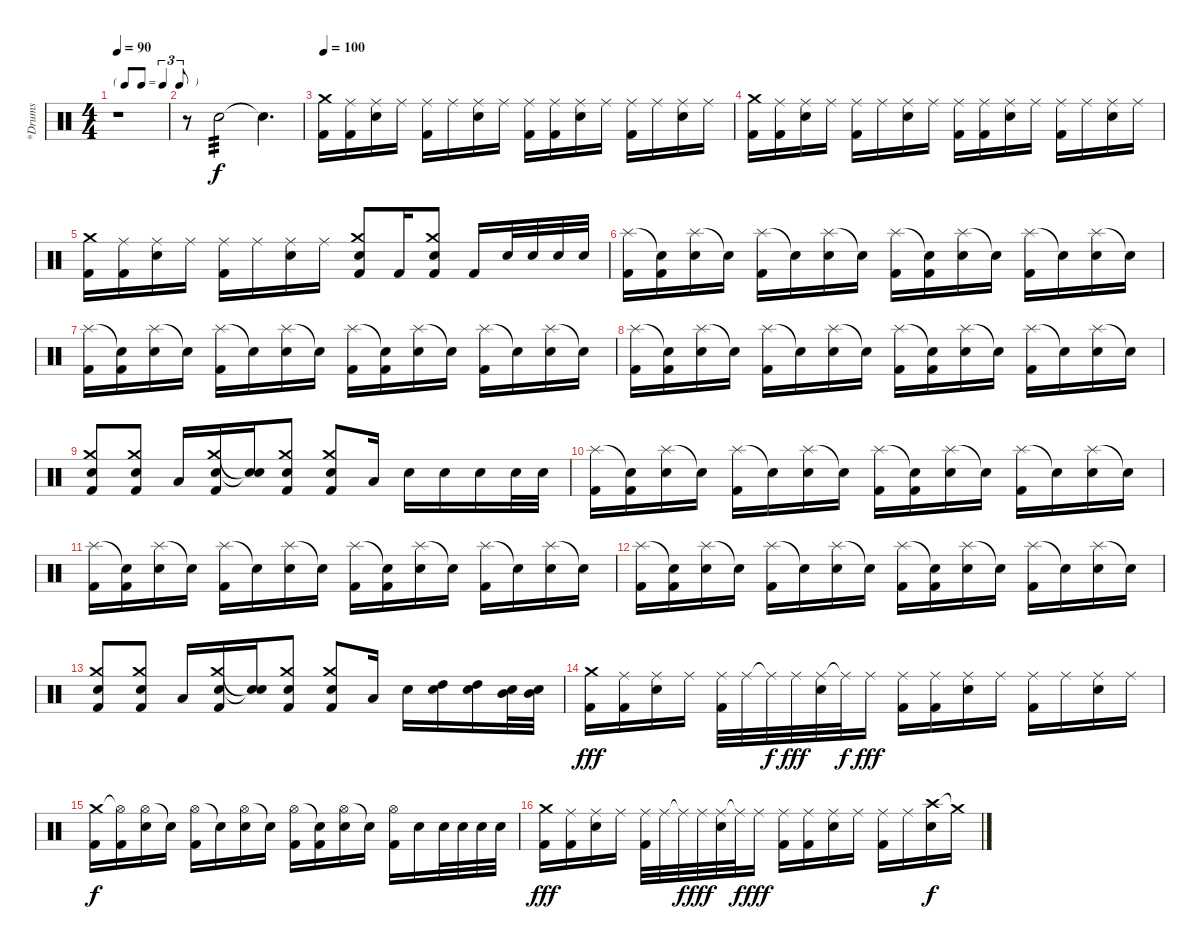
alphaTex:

\track ("*Drums" "*Drums") {instrument percussion}
\staff {score}
\articulation defaults
\ts (4 4)
\tf triplet8th
\tempo 90
\clef neutral
\ks c
r.1{dy f} |
r.8 "Electric Snare (hit)".2{tp 3} "Snare (hit)"{t}.4{d} |
\tempo 100
("Crash medium (hit)" "Kick (hit) 2").16 ("Ride (middle)" "Kick (hit) 2").16 ("Ride (middle)" "Electric Snare (hit)").16 "Ride (middle)".16 ("Ride (middle)" "Kick (hit) 2").16 "Ride (middle)".16 ("Ride (middle)" "Electric Snare (hit)").16 "Ride (middle)".16 ("Ride (middle)" "Kick (hit) 2").16 ("Ride (middle)" "Kick (hit) 2").16 ("Ride (middle)" "Electric Snare (hit)").16 "Ride (middle)".16 ("Ride (middle)" "Kick (hit) 2").16 "Ride (middle)".16 ("Ride (middle)" "Electric Snare (hit)").16 "Ride (middle)".16 |
("Crash medium (hit)" "Kick (hit) 2").16 ("Ride (middle)" "Kick (hit) 2").16 ("Ride (middle)" "Electric Snare (hit)").16 "Ride (middle)".16 ("Ride (middle)" "Kick (hit) 2").16 "Ride (middle)".16 ("Ride (middle)" "Electric Snare (hit)").16 "Ride (middle)".16 ("Ride (middle)" "Kick (hit) 2").16 ("Ride (middle)" "Kick (hit) 2").16 ("Ride (middle)" "Electric Snare (hit)").16 "Ride (middle)".16 ("Ride (middle)" "Kick (hit) 2").16 "Ride (middle)".16 ("Ride (middle)" "Electric Snare (hit)").16 "Ride (middle)".16 |
("Crash medium (hit)" "Kick (hit) 2").16 ("Ride (middle)" "Kick (hit) 2").16 ("Ride (middle)" "Electric Snare (hit)").16 "Ride (middle)".16 ("Ride (middle)" "Kick (hit) 2").16 "Ride (middle)".16 ("Ride (middle)" "Electric Snare (hit)").16 "Ride (middle)".16 ("Crash medium (hit)" "Electric Snare (hit)" "Kick (hit) 2").8 "Kick (hit) 2".16 ("Crash medium (hit)" "Electric Snare (hit)" "Kick (hit) 2").8 "Kick (hit) 2".16 "Electric Snare (hit)".32 "Electric Snare (hit)".32 "Electric Snare (hit)".32 "Electric Snare (hit)".32 |
("Splash (hit)" "Kick (hit) 2").16 ("Snare (hit)"{t} "Kick (hit) 2").16 ("Splash (hit)" "Electric Snare (hit)").16 "Snare (hit)"{t}.16 ("Splash (hit)" "Kick (hit) 2").16 "Snare (hit)"{t}.16 ("Splash (hit)" "Electric Snare (hit)").16 "Snare (hit)"{t}.16 ("Splash (hit)" "Kick (hit) 2").16 ("Snare (hit)"{t} "Kick (hit) 2").16 ("Splash (hit)" "Electric Snare (hit)").16 "Snare (hit)"{t}.16 ("Splash (hit)" "Kick (hit) 2").16 "Snare (hit)"{t}.16 ("Splash (hit)" "Electric Snare (hit)").16 "Snare (hit)"{t}.16 |
("Splash (hit)" "Kick (hit) 2").16 ("Snare (hit)"{t} "Kick (hit) 2").16 ("Splash (hit)" "Electric Snare (hit)").16 "Snare (hit)"{t}.16 ("Splash (hit)" "Kick (hit) 2").16 "Snare (hit)"{t}.16 ("Splash (hit)" "Electric Snare (hit)").16 "Snare (hit)"{t}.16 ("Splash (hit)" "Kick (hit) 2").16 ("Snare (hit)"{t} "Kick (hit) 2").16 ("Splash (hit)" "Electric Snare (hit)").16 "Snare (hit)"{t}.16 ("Splash (hit)" "Kick (hit) 2").16 "Snare (hit)"{t}.16 ("Splash (hit)" "Electric Snare (hit)").16 "Snare (hit)"{t}.16 |
("Splash (hit)" "Kick (hit) 2").16 ("Snare (hit)"{t} "Kick (hit) 2").16 ("Splash (hit)" "Electric Snare (hit)").16 "Snare (hit)"{t}.16 ("Splash (hit)" "Kick (hit) 2").16 "Snare (hit)"{t}.16 ("Splash (hit)" "Electric Snare (hit)").16 "Snare (hit)"{t}.16 ("Splash (hit)" "Kick (hit) 2").16 ("Snare (hit)"{t} "Kick (hit) 2").16 ("Splash (hit)" "Electric Snare (hit)").16 "Snare (hit)"{t}.16 ("Splash (hit)" "Kick (hit) 2").16 "Snare (hit)"{t}.16 ("Splash (hit)" "Electric Snare (hit)").16 "Snare (hit)"{t}.16 |
("Crash medium (hit)" "Electric Snare (hit)" "Kick (hit) 2").8 ("Crash medium (hit)" "Electric Snare (hit)" "Kick (hit) 2").8 "Low Tom (hit)".16 ("Crash medium (hit)" "Electric Snare (hit)" "Kick (hit) 2").16 ("Snare (hit)"{t} "Electric Snare (hit)"{t}).16 ("Crash medium (hit)" "Electric Snare (hit)" "Kick (hit) 2").8 ("Crash medium (hit)" "Electric Snare (hit)" "Kick (hit) 2").8 "Low Tom (hit)".16 "Electric Snare (hit)".16 "Electric Snare (hit)".16 "Electric Snare (hit)".16 "Electric Snare (hit)".32 "Electric Snare (hit)".32 |
("Splash (hit)" "Kick (hit) 2").16 ("Snare (hit)"{t} "Kick (hit) 2").16 ("Splash (hit)" "Electric Snare (hit)").16 "Snare (hit)"{t}.16 ("Splash (hit)" "Kick (hit) 2").16 "Snare (hit)"{t}.16 ("Splash (hit)" "Electric Snare (hit)").16 "Snare (hit)"{t}.16 ("Splash (hit)" "Kick (hit) 2").16 ("Snare (hit)"{t} "Kick (hit) 2").16 ("Splash (hit)" "Electric Snare (hit)").16 "Snare (hit)"{t}.16 ("Splash (hit)" "Kick (hit) 2").16 "Snare (hit)"{t}.16 ("Splash (hit)" "Electric Snare (hit)").16 "Snare (hit)"{t}.16 |
("Splash (hit)" "Kick (hit) 2").16 ("Snare (hit)"{t} "Kick (hit) 2").16 ("Splash (hit)" "Electric Snare (hit)").16 "Snare (hit)"{t}.16 ("Splash (hit)" "Kick (hit) 2").16 "Snare (hit)"{t}.16 ("Splash (hit)" "Electric Snare (hit)").16 "Snare (hit)"{t}.16 ("Splash (hit)" "Kick (hit) 2").16 ("Snare (hit)"{t} "Kick (hit) 2").16 ("Splash (hit)" "Electric Snare (hit)").16 "Snare (hit)"{t}.16 ("Splash (hit)" "Kick (hit) 2").16 "Snare (hit)"{t}.16 ("Splash (hit)" "Electric Snare (hit)").16 "Snare (hit)"{t}.16 |
("Splash (hit)" "Kick (hit) 2").16 ("Snare (hit)"{t} "Kick (hit) 2").16 ("Splash (hit)" "Electric Snare (hit)").16 "Snare (hit)"{t}.16 ("Splash (hit)" "Kick (hit) 2").16 "Snare (hit)"{t}.16 ("Splash (hit)" "Electric Snare (hit)").16 "Snare (hit)"{t}.16 ("Splash (hit)" "Kick (hit) 2").16 ("Snare (hit)"{t} "Kick (hit) 2").16 ("Splash (hit)" "Electric Snare (hit)").16 "Snare (hit)"{t}.16 ("Splash (hit)" "Kick (hit) 2").16 "Snare (hit)"{t}.16 ("Splash (hit)" "Electric Snare (hit)").16 "Snare (hit)"{t}.16 |
("Crash medium (hit)" "Electric Snare (hit)" "Kick (hit) 2").8 ("Crash medium (hit)" "Electric Snare (hit)" "Kick (hit) 2").8 "Low Tom (hit)".16 ("Crash medium (hit)" "Electric Snare (hit)" "Kick (hit) 2").16 ("Snare (hit)"{t} "Electric Snare (hit)"{t}).16 ("Crash medium (hit)" "Electric Snare (hit)" "Kick (hit) 2").8 ("Crash medium (hit)" "Electric Snare (hit)" "Kick (hit) 2").8 "Low Tom (hit)".16 "Electric Snare (hit)".16 ("High Tom (hit)" "Electric Snare (hit)").16 ("High Tom (hit)" "Electric Snare (hit)").16 ("Mid Tom (hit)" "Electric Snare (hit)").32 ("Mid Tom (hit)" "Electric Snare (hit)").32 |
("Crash medium (hit)" "Kick (hit) 2").16{dy fff} ("Ride (middle)" "Kick (hit) 2").16 ("Ride (middle)" "Electric Snare (hit)").16 "Ride (middle)".16 ("Ride (middle)" "Kick (hit) 2").32 "Ride (middle)".32 "Ride (middle)"{t}.32{dy f} "Ride (middle)".32{dy fff} ("Ride (middle)" "Electric Snare (hit)").32 "Ride (middle)"{t}.32{dy f} "Ride (middle)".16{dy fff} ("Ride (middle)" "Kick (hit) 2").16 ("Ride (middle)" "Kick (hit) 2").16 ("Ride (middle)" "Electric Snare (hit)").16 "Ride (middle)".16 ("Ride (middle)" "Kick (hit) 2").16 "Ride (middle)".16 ("Ride (middle)" "Electric Snare (hit)").16 "Ride (middle)".16 |
("Crash medium (hit)" "Kick (hit) 2").16{dy f} ("Hi-Hat (open)"{t} "Kick (hit) 2").16 ("Hi-Hat (open)" "Electric Snare (hit)").16 "Snare (hit)"{t}.16 ("Hi-Hat (open)" "Kick (hit) 2").16 "Snare (hit)"{t}.16 ("Hi-Hat (open)" "Electric Snare (hit)").16 "Snare (hit)"{t}.16 ("Hi-Hat (open)" "Kick (hit) 2").16 ("Snare (hit)"{t} "Kick (hit) 2").16 ("Hi-Hat (open)" "Electric Snare (hit)").16 "Snare (hit)"{t}.16 ("Hi-Hat (open)" "Kick (hit) 2").16 "Electric Snare (hit)".16 "Electric Snare (hit)".32 "Electric Snare (hit)".32 "Electric Snare (hit)".32 "Electric Snare (hit)".32 |
("Crash medium (hit)" "Kick (hit) 2").16{dy fff} ("Ride (middle)" "Kick (hit) 2").16 ("Ride (middle)" "Electric Snare (hit)").16 "Ride (middle)".16 ("Ride (middle)" "Kick (hit) 2").32 "Ride (middle)".32 "Ride (middle)"{t}.32{dy f} "Ride (middle)".32{dy fff} ("Ride (middle)" "Electric Snare (hit)").32 "Ride (middle)"{t}.32{dy f} "Ride (middle)".16{dy fff} ("Ride (middle)" "Kick (hit) 2").16 ("Ride (middle)" "Kick (hit) 2").16 ("Ride (middle)" "Electric Snare (hit)").16 "Ride (middle)".16 ("Ride (middle)" "Kick (hit) 2").16 "Ride (middle)".16 ("Crash high (hit)" "Electric Snare (hit)").16{dy f} "Crash medium (hit)"{t}.16
